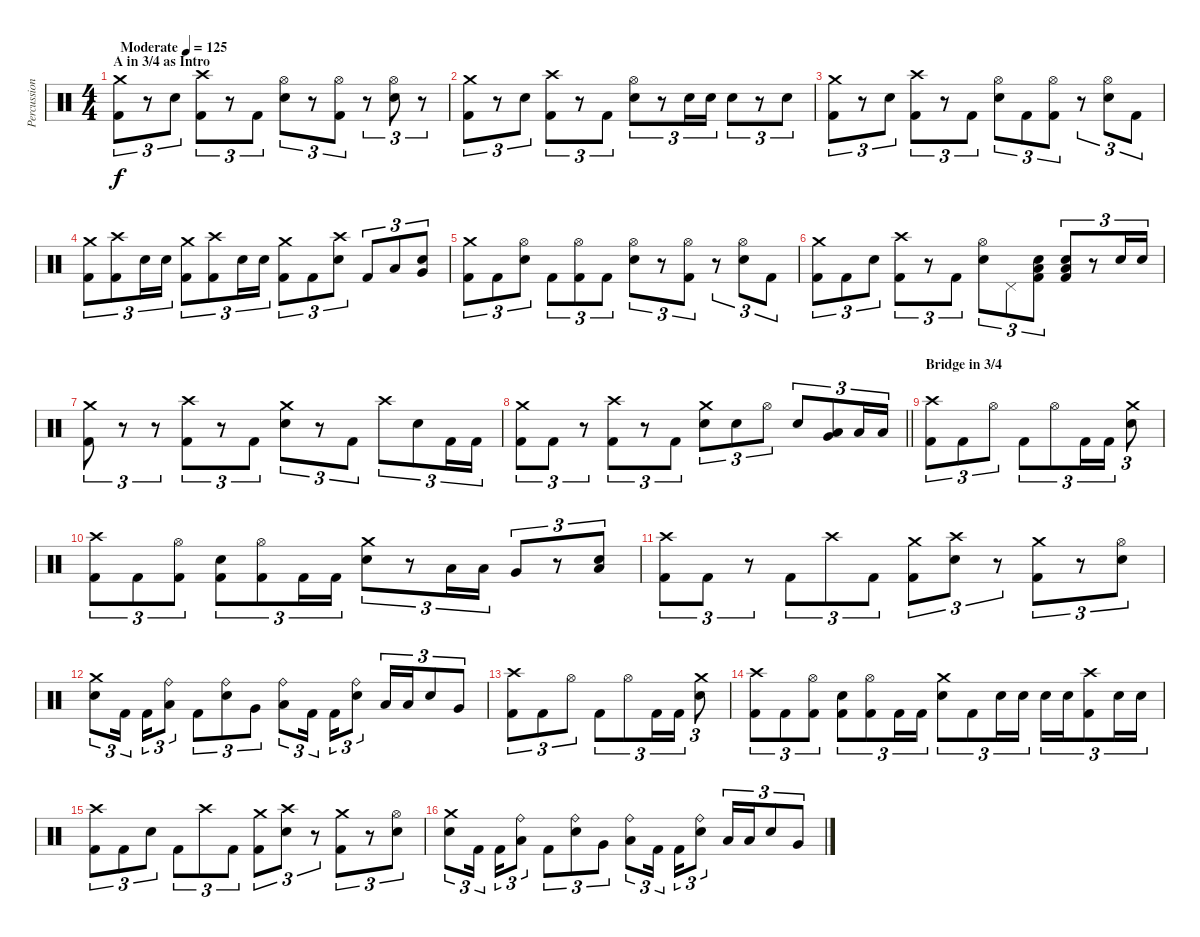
\track ("Percussion" "Percussion") {instrument percussion}
\staff {score}
\articulation defaults
\ts (4 4)
\section ("" "A in 3/4 as Intro")
\tempo (125 "Moderate")
\clef neutral
\ks c
("Crash medium (hit)" "Kick (hit) 2").8{tu (3 2) dy f} r.8{tu (3 2)} "Electric Snare (hit)".8{tu (3 2)} ("Crash high (hit)" "Kick (hit) 2").8{tu (3 2)} r.8{tu (3 2)} "Kick (hit) 2".8{tu (3 2)} ("Hi-Hat (open)" "Electric Snare (hit)").8{tu (3 2)} r.8{tu (3 2)} ("Hi-Hat (open)" "Kick (hit) 2").8{tu (3 2)} r.8{tu (3 2)} ("Hi-Hat (open)" "Electric Snare (hit)").8{tu (3 2)} r.8{tu (3 2)} |
("Crash medium (hit)" "Kick (hit) 2").8{tu (3 2)} r.8{tu (3 2)} "Electric Snare (hit)".8{tu (3 2)} ("Crash high (hit)" "Kick (hit) 2").8{tu (3 2)} r.8{tu (3 2)} "Kick (hit) 2".8{tu (3 2)} ("Hi-Hat (open)" "Electric Snare (hit)").8{tu (3 2)} r.8{tu (3 2)} "Electric Snare (hit)".16{tu (3 2)} "Electric Snare (hit)".16{tu (3 2)} "Electric Snare (hit)".8{tu (3 2)} r.8{tu (3 2)} "Electric Snare (hit)".8{tu (3 2)} |
("Crash medium (hit)" "Kick (hit) 2").8{tu (3 2)} r.8{tu (3 2)} "Electric Snare (hit)".8{tu (3 2)} ("Crash high (hit)" "Kick (hit) 2").8{tu (3 2)} r.8{tu (3 2)} "Kick (hit) 2".8{tu (3 2)} ("Hi-Hat (open)" "Electric Snare (hit)").8{tu (3 2)} "Kick (hit) 2".8{tu (3 2)} ("Hi-Hat (open)" "Kick (hit) 2").8{tu (3 2)} r.8{tu (3 2)} ("Hi-Hat (open)" "Electric Snare (hit)").8{tu (3 2)} "Kick (hit) 2".8{tu (3 2)} |
("Crash medium (hit)" "Kick (hit) 2").8{tu (3 2)} ("Crash high (hit)" "Kick (hit) 2").8{tu (3 2)} "Electric Snare (hit)".16{tu (3 2)} "Electric Snare (hit)".16{tu (3 2)} ("Crash medium (hit)" "Kick (hit) 2").8{tu (3 2)} ("Crash high (hit)" "Kick (hit) 2").8{tu (3 2)} "Electric Snare (hit)".16{tu (3 2)} "Electric Snare (hit)".16{tu (3 2)} ("Crash medium (hit)" "Kick (hit) 2").8{tu (3 2)} "Kick (hit) 2".8{tu (3 2)} ("Crash high (hit)" "Electric Snare (hit)").8{tu (3 2)} "Kick (hit) 2".8{tu (3 2)} "Low Tom (hit)".8{tu (3 2)} ("Very Low Tom (hit)" "Electric Snare (hit)").8{tu (3 2)} |
("Crash medium (hit)" "Kick (hit) 2").8{tu (3 2)} "Kick (hit) 2".8{tu (3 2)} ("Hi-Hat (open)" "Electric Snare (hit)").8{tu (3 2)} "Kick (hit) 2".8{tu (3 2)} ("Hi-Hat (open)" "Kick (hit) 2").8{tu (3 2)} "Kick (hit) 2".8{tu (3 2)} ("Hi-Hat (open)" "Electric Snare (hit)").8{tu (3 2)} r.8{tu (3 2)} ("Hi-Hat (open)" "Kick (hit) 2").8{tu (3 2)} r.8{tu (3 2)} ("Hi-Hat (open)" "Electric Snare (hit)").8{tu (3 2)} "Kick (hit) 2".8{tu (3 2)} |
("Crash medium (hit)" "Kick (hit) 2").8{tu (3 2)} "Kick (hit) 2".8{tu (3 2)} "Electric Snare (hit)".8{tu (3 2)} ("Crash high (hit)" "Kick (hit) 2").8{tu (3 2)} r.8{tu (3 2)} "Kick (hit) 2".8{tu (3 2)} ("Hi-Hat (open)" "Electric Snare (hit)").8{tu (3 2)} "Pedal Hi-Hat (hit)".8{tu (3 2)} ("Low Floor Tom (hit)" "Electric Snare (hit)" "Kick (hit) 2").8{tu (3 2)} ("Low Floor Tom (hit)" "Electric Snare (hit)" "Kick (hit) 2").8{tu (3 2)} r.8{tu (3 2)} "Electric Snare (hit)".16{tu (3 2)} "Electric Snare (hit)".16{tu (3 2)} |
("Crash medium (hit)" "Kick (hit) 2").8{tu (3 2)} r.8{tu (3 2)} r.8{tu (3 2)} ("Crash high (hit)" "Kick (hit) 2").8{tu (3 2)} r.8{tu (3 2)} "Kick (hit) 2".8{tu (3 2)} ("Crash medium (hit)" "Electric Snare (hit)").8{tu (3 2)} r.8{tu (3 2)} "Kick (hit) 2".8{tu (3 2)} "Crash high (hit)".8{tu (3 2)} "Electric Snare (hit)".8{tu (3 2)} "Kick (hit) 2".16{tu (3 2)} "Kick (hit) 2".16{tu (3 2)} |
\barLineRight lightlight
("Crash medium (hit)" "Kick (hit) 2").8{tu (3 2)} "Kick (hit) 2".8{tu (3 2)} r.8{tu (3 2)} ("Crash high (hit)" "Kick (hit) 2").8{tu (3 2)} r.8{tu (3 2)} "Kick (hit) 2".8{tu (3 2)} ("Crash medium (hit)" "Electric Snare (hit)").8{tu (3 2)} "Electric Snare (hit)".8{tu (3 2)} "Hi-Hat (open)".8{tu (3 2)} "Electric Snare (hit)".8{tu (3 2)} ("Very Low Tom (hit)" "Low Tom (hit)").8{tu (3 2)} "Low Floor Tom (hit)".16{tu (3 2)} "Low Floor Tom (hit)".16{tu (3 2)} |
\section ("" "Bridge in 3/4")
("Crash high (hit)" "Kick (hit) 2").8{tu (3 2)} "Kick (hit) 2".8{tu (3 2)} "Hi-Hat (open)".8{tu (3 2)} "Kick (hit) 2".8{tu (3 2)} "Hi-Hat (open)".8{tu (3 2)} "Kick (hit) 2".16{tu (3 2)} "Kick (hit) 2".16{tu (3 2)} ("Crash medium (hit)" "Electric Snare (hit)").8{tu (3 2)} |
("Crash high (hit)" "Kick (hit) 2").8{tu (3 2)} "Kick (hit) 2".8{tu (3 2)} ("Hi-Hat (open)" "Kick (hit) 2").8{tu (3 2)} ("Electric Snare (hit)" "Kick (hit) 2").8{tu (3 2)} ("Hi-Hat (open)" "Kick (hit) 2").8{tu (3 2)} "Kick (hit) 2".16{tu (3 2)} "Kick (hit) 2".16{tu (3 2)} ("Crash medium (hit)" "Electric Snare (hit)").8{tu (3 2)} r.8{tu (3 2)} "Low Tom (hit)".16{tu (3 2)} "Low Tom (hit)".16{tu (3 2)} "Very Low Tom (hit)".8{tu (3 2)} r.8{tu (3 2)} ("Electric Snare (hit)" "Low Floor Tom (hit)").8{tu (3 2)} |
("Crash high (hit)" "Kick (hit) 2").8{tu (3 2)} "Kick (hit) 2".8{tu (3 2)} r.8{tu (3 2)} "Kick (hit) 2".8{tu (3 2)} "Crash high (hit)".8{tu (3 2)} "Kick (hit) 2".8{tu (3 2)} ("Crash medium (hit)" "Kick (hit) 2").8{tu (3 2)} ("Crash high (hit)" "Electric Snare (hit)").8{tu (3 2)} r.8{tu (3 2)} ("Crash medium (hit)" "Kick (hit) 2").8{tu (3 2)} r.8{tu (3 2)} ("Hi-Hat (open)" "Electric Snare (hit)").8{tu (3 2)} |
("Crash medium (hit)" "Electric Snare (hit)").8{tu (3 2)} "Kick (hit) 2".16{tu (3 2) beam splitsecondary} "Kick (hit) 2".16{tu (3 2)} ("Ride (bell)" "Low Tom (hit)").8{tu (3 2)} "Kick (hit) 2".8{tu (3 2)} ("Ride (bell)" "Electric Snare (hit)").8{tu (3 2)} "Very Low Tom (hit)".8{tu (3 2)} ("Ride (bell)" "Low Floor Tom (hit)").8{tu (3 2)} "Kick (hit) 2".16{tu (3 2) beam splitsecondary} "Kick (hit) 2".16{tu (3 2)} ("Ride (bell)" "Electric Snare (hit)").8{tu (3 2)} "Low Floor Tom (hit)".16{tu (3 2)} "Low Floor Tom (hit)".16{tu (3 2)} "Electric Snare (hit)".8{tu (3 2)} "Very Low Tom (hit)".8{tu (3 2)} |
("Crash high (hit)" "Kick (hit) 2").8{tu (3 2)} "Kick (hit) 2".8{tu (3 2)} "Hi-Hat (open)".8{tu (3 2)} "Kick (hit) 2".8{tu (3 2)} "Hi-Hat (open)".8{tu (3 2)} "Kick (hit) 2".16{tu (3 2)} "Kick (hit) 2".16{tu (3 2)} ("Crash medium (hit)" "Electric Snare (hit)").8{tu (3 2)} |
("Crash high (hit)" "Kick (hit) 2").8{tu (3 2)} "Kick (hit) 2".8{tu (3 2)} ("Hi-Hat (open)" "Kick (hit) 2").8{tu (3 2)} ("Electric Snare (hit)" "Kick (hit) 2").8{tu (3 2)} ("Hi-Hat (open)" "Kick (hit) 2").8{tu (3 2)} "Kick (hit) 2".16{tu (3 2)} "Kick (hit) 2".16{tu (3 2)} ("Crash medium (hit)" "Electric Snare (hit)").8{tu (3 2)} "Kick (hit) 2".8{tu (3 2)} "Electric Snare (hit)".16{tu (3 2)} "Electric Snare (hit)".16{tu (3 2)} "Electric Snare (hit)".16{tu (3 2)} "Electric Snare (hit)".16{tu (3 2)} ("Crash high (hit)" "Kick (hit) 2").8{tu (3 2)} "Electric Snare (hit)".16{tu (3 2)} "Electric Snare (hit)".16{tu (3 2)} |
("Crash high (hit)" "Kick (hit) 2").8{tu (3 2)} "Kick (hit) 2".8{tu (3 2)} "Electric Snare (hit)".8{tu (3 2)} "Kick (hit) 2".8{tu (3 2)} "Crash high (hit)".8{tu (3 2)} "Kick (hit) 2".8{tu (3 2)} ("Crash medium (hit)" "Kick (hit) 2").8{tu (3 2)} ("Crash high (hit)" "Electric Snare (hit)").8{tu (3 2)} r.8{tu (3 2)} ("Crash medium (hit)" "Kick (hit) 2").8{tu (3 2)} r.8{tu (3 2)} ("Hi-Hat (open)" "Electric Snare (hit)").8{tu (3 2)} |
("Crash medium (hit)" "Electric Snare (hit)").8{tu (3 2)} "Kick (hit) 2".16{tu (3 2) beam splitsecondary} "Kick (hit) 2".16{tu (3 2)} ("Ride (bell)" "Low Tom (hit)").8{tu (3 2)} "Kick (hit) 2".8{tu (3 2)} ("Ride (bell)" "Electric Snare (hit)").8{tu (3 2)} "Very Low Tom (hit)".8{tu (3 2)} ("Ride (bell)" "Low Floor Tom (hit)").8{tu (3 2)} "Kick (hit) 2".16{tu (3 2) beam splitsecondary} "Kick (hit) 2".16{tu (3 2)} ("Ride (bell)" "Electric Snare (hit)").8{tu (3 2)} "Low Floor Tom (hit)".16{tu (3 2)} "Low Floor Tom (hit)".16{tu (3 2)} "Electric Snare (hit)".8{tu (3 2)} "Very Low Tom (hit)".8{tu (3 2)}
